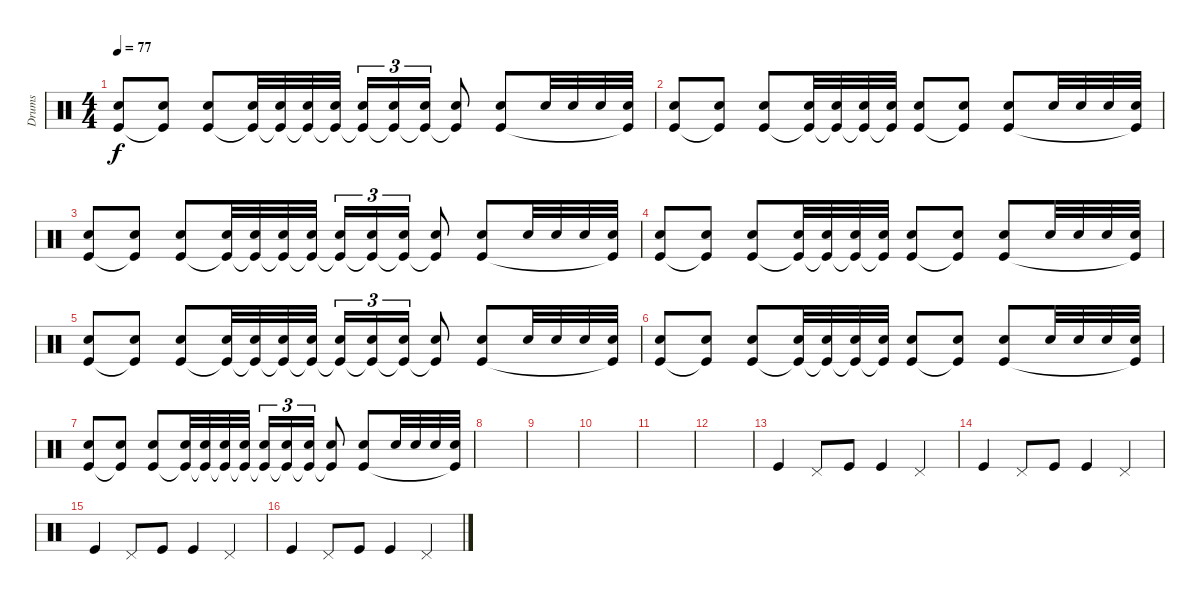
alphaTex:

\track ("Drums" "Drums") {instrument percussion}
\staff {score}
\articulation defaults
\ts (4 4)
\tempo 77
\clef neutral
\ks c
("Snare (hit) 2" "Kick (hit)").8{dy f} ("Snare (hit) 2" "Kick (hit)"{t}).8 ("Snare (hit) 2" "Kick (hit)").8 ("Snare (hit) 2" "Kick (hit)"{t}).32 ("Snare (hit) 2" "Kick (hit)"{t}).32 ("Snare (hit) 2" "Kick (hit)"{t}).32 ("Snare (hit) 2" "Kick (hit)"{t}).32 ("Snare (hit) 2" "Kick (hit)"{t}).16{tu (3 2)} ("Snare (hit) 2" "Kick (hit)"{t}).16{tu (3 2)} ("Snare (hit) 2" "Kick (hit)"{t}).16{tu (3 2)} ("Snare (hit) 2" "Kick (hit)"{t}).8 ("Snare (hit) 2" "Kick (hit)").8 "Snare (hit) 2".32 "Snare (hit) 2".32 "Snare (hit) 2".32 ("Snare (hit) 2" "Kick (hit)"{t}).32 |
("Snare (hit) 2" "Kick (hit)").8 ("Snare (hit) 2" "Kick (hit)"{t}).8 ("Snare (hit) 2" "Kick (hit)").8 ("Snare (hit) 2" "Kick (hit)"{t}).32 ("Snare (hit) 2" "Kick (hit)"{t}).32 ("Snare (hit) 2" "Kick (hit)"{t}).32 ("Snare (hit) 2" "Kick (hit)"{t}).32 ("Snare (hit) 2" "Kick (hit)").8 ("Snare (hit) 2" "Kick (hit)"{t}).8 ("Snare (hit) 2" "Kick (hit)").8 "Snare (hit) 2".32 "Snare (hit) 2".32 "Snare (hit) 2".32 ("Snare (hit) 2" "Kick (hit)"{t}).32 |
("Snare (hit) 2" "Kick (hit)").8 ("Snare (hit) 2" "Kick (hit)"{t}).8 ("Snare (hit) 2" "Kick (hit)").8 ("Snare (hit) 2" "Kick (hit)"{t}).32 ("Snare (hit) 2" "Kick (hit)"{t}).32 ("Snare (hit) 2" "Kick (hit)"{t}).32 ("Snare (hit) 2" "Kick (hit)"{t}).32 ("Snare (hit) 2" "Kick (hit)"{t}).16{tu (3 2)} ("Snare (hit) 2" "Kick (hit)"{t}).16{tu (3 2)} ("Snare (hit) 2" "Kick (hit)"{t}).16{tu (3 2)} ("Snare (hit) 2" "Kick (hit)"{t}).8 ("Snare (hit) 2" "Kick (hit)").8 "Snare (hit) 2".32 "Snare (hit) 2".32 "Snare (hit) 2".32 ("Snare (hit) 2" "Kick (hit)"{t}).32 |
("Snare (hit) 2" "Kick (hit)").8 ("Snare (hit) 2" "Kick (hit)"{t}).8 ("Snare (hit) 2" "Kick (hit)").8 ("Snare (hit) 2" "Kick (hit)"{t}).32 ("Snare (hit) 2" "Kick (hit)"{t}).32 ("Snare (hit) 2" "Kick (hit)"{t}).32 ("Snare (hit) 2" "Kick (hit)"{t}).32 ("Snare (hit) 2" "Kick (hit)").8 ("Snare (hit) 2" "Kick (hit)"{t}).8 ("Snare (hit) 2" "Kick (hit)").8 "Snare (hit) 2".32 "Snare (hit) 2".32 "Snare (hit) 2".32 ("Snare (hit) 2" "Kick (hit)"{t}).32 |
("Snare (hit) 2" "Kick (hit)").8 ("Snare (hit) 2" "Kick (hit)"{t}).8 ("Snare (hit) 2" "Kick (hit)").8 ("Snare (hit) 2" "Kick (hit)"{t}).32 ("Snare (hit) 2" "Kick (hit)"{t}).32 ("Snare (hit) 2" "Kick (hit)"{t}).32 ("Snare (hit) 2" "Kick (hit)"{t}).32 ("Snare (hit) 2" "Kick (hit)"{t}).16{tu (3 2)} ("Snare (hit) 2" "Kick (hit)"{t}).16{tu (3 2)} ("Snare (hit) 2" "Kick (hit)"{t}).16{tu (3 2)} ("Snare (hit) 2" "Kick (hit)"{t}).8 ("Snare (hit) 2" "Kick (hit)").8 "Snare (hit) 2".32 "Snare (hit) 2".32 "Snare (hit) 2".32 ("Snare (hit) 2" "Kick (hit)"{t}).32 |
("Snare (hit) 2" "Kick (hit)").8 ("Snare (hit) 2" "Kick (hit)"{t}).8 ("Snare (hit) 2" "Kick (hit)").8 ("Snare (hit) 2" "Kick (hit)"{t}).32 ("Snare (hit) 2" "Kick (hit)"{t}).32 ("Snare (hit) 2" "Kick (hit)"{t}).32 ("Snare (hit) 2" "Kick (hit)"{t}).32 ("Snare (hit) 2" "Kick (hit)").8 ("Snare (hit) 2" "Kick (hit)"{t}).8 ("Snare (hit) 2" "Kick (hit)").8 "Snare (hit) 2".32 "Snare (hit) 2".32 "Snare (hit) 2".32 ("Snare (hit) 2" "Kick (hit)"{t}).32 |
("Snare (hit) 2" "Kick (hit)").8 ("Snare (hit) 2" "Kick (hit)"{t}).8 ("Snare (hit) 2" "Kick (hit)").8 ("Snare (hit) 2" "Kick (hit)"{t}).32 ("Snare (hit) 2" "Kick (hit)"{t}).32 ("Snare (hit) 2" "Kick (hit)"{t}).32 ("Snare (hit) 2" "Kick (hit)"{t}).32 ("Snare (hit) 2" "Kick (hit)"{t}).16{tu (3 2)} ("Snare (hit) 2" "Kick (hit)"{t}).16{tu (3 2)} ("Snare (hit) 2" "Kick (hit)"{t}).16{tu (3 2)} ("Snare (hit) 2" "Kick (hit)"{t}).8 ("Snare (hit) 2" "Kick (hit)").8 "Snare (hit) 2".32 "Snare (hit) 2".32 "Snare (hit) 2".32 ("Snare (hit) 2" "Kick (hit)"{t}).32 |
|
|
|
|
|
"Kick (hit)".4 "Pedal Hi-Hat (hit)".8 "Kick (hit)".8 "Kick (hit)".4 "Pedal Hi-Hat (hit)".4 |
"Kick (hit)".4 "Pedal Hi-Hat (hit)".8 "Kick (hit)".8 "Kick (hit)".4 "Pedal Hi-Hat (hit)".4 |
"Kick (hit)".4 "Pedal Hi-Hat (hit)".8 "Kick (hit)".8 "Kick (hit)".4 "Pedal Hi-Hat (hit)".4 |
"Kick (hit)".4 "Pedal Hi-Hat (hit)".8 "Kick (hit)".8 "Kick (hit)".4 "Pedal Hi-Hat (hit)".4
